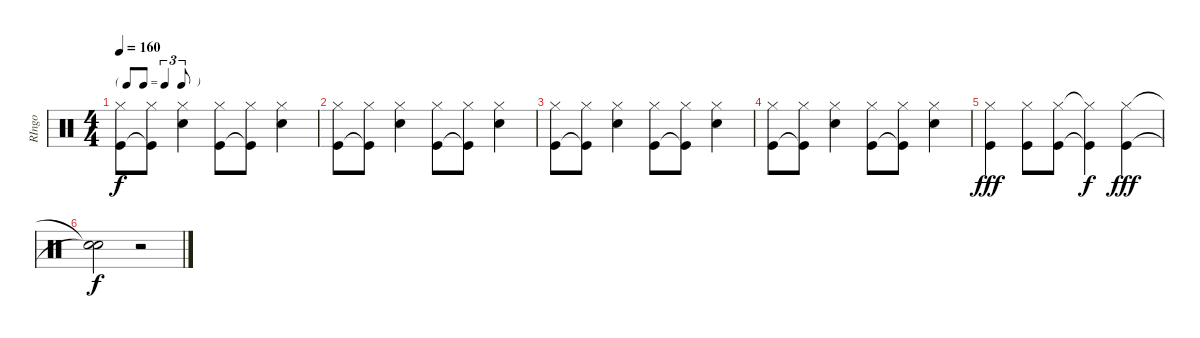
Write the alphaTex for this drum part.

\track ("RIngo" "RIngo") {instrument percussion}
\staff {score}
\articulation defaults
\ts (4 4)
\tf triplet8th
\tempo 160
\clef neutral
\ks c
("Hi-Hat (closed)" "Kick (hit)").8{dy f} ("Hi-Hat (closed)" "Kick (hit)"{t}).8 ("Hi-Hat (closed)" "Snare (hit) 2").4 ("Hi-Hat (closed)" "Kick (hit)").8 ("Hi-Hat (closed)" "Kick (hit)"{t}).8 ("Hi-Hat (closed)" "Snare (hit) 2").4 |
("Hi-Hat (closed)" "Kick (hit)").8 ("Hi-Hat (closed)" "Kick (hit)"{t}).8 ("Hi-Hat (closed)" "Snare (hit) 2").4 ("Hi-Hat (closed)" "Kick (hit)").8 ("Hi-Hat (closed)" "Kick (hit)"{t}).8 ("Hi-Hat (closed)" "Snare (hit) 2").4 |
("Hi-Hat (closed)" "Kick (hit)").8 ("Hi-Hat (closed)" "Kick (hit)"{t}).8 ("Hi-Hat (closed)" "Snare (hit) 2").4 ("Hi-Hat (closed)" "Kick (hit)").8 ("Hi-Hat (closed)" "Kick (hit)"{t}).8 ("Hi-Hat (closed)" "Snare (hit) 2").4 |
("Hi-Hat (closed)" "Kick (hit)").8 ("Hi-Hat (closed)" "Kick (hit)"{t}).8 ("Hi-Hat (closed)" "Snare (hit) 2").4 ("Hi-Hat (closed)" "Kick (hit)").8 ("Hi-Hat (closed)" "Kick (hit)"{t}).8 ("Hi-Hat (closed)" "Snare (hit) 2").4 |
("Hi-Hat (closed)" "Kick (hit)").4{dy fff} ("Hi-Hat (closed)" "Kick (hit)").8 ("Hi-Hat (closed)" "Kick (hit)").8 ("Hi-Hat (closed)"{t} "Kick (hit)"{t}).4{dy f} ("Hi-Hat (closed)" "Kick (hit)").4{dy fff} |
("Snare (hit)"{t} "Snare (hit)"{t}).2{dy f} r.2
